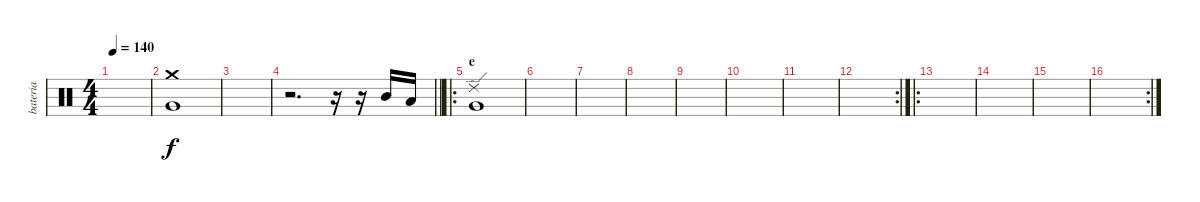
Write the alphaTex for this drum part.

\track ("bateria" "bateria") {mute instrument percussion}
\staff {score}
\articulation defaults
\ts (4 4)
\tempo 140
\clef neutral
\ks c
|
("Very Low Tom (hit)" "Crash medium (hit)").1 |
|
\barLineRight lightlight
r.2{d} r.16 r.16 "Mid Tom (hit)".16 "Low Tom (hit)".16 |
\ro
\section ("" "e")
("Very Low Tom (hit)" "Ride (edge) 2").1 |
|
|
|
|
|
|
\rc 2
|
\ro
|
|
|
\rc 2
